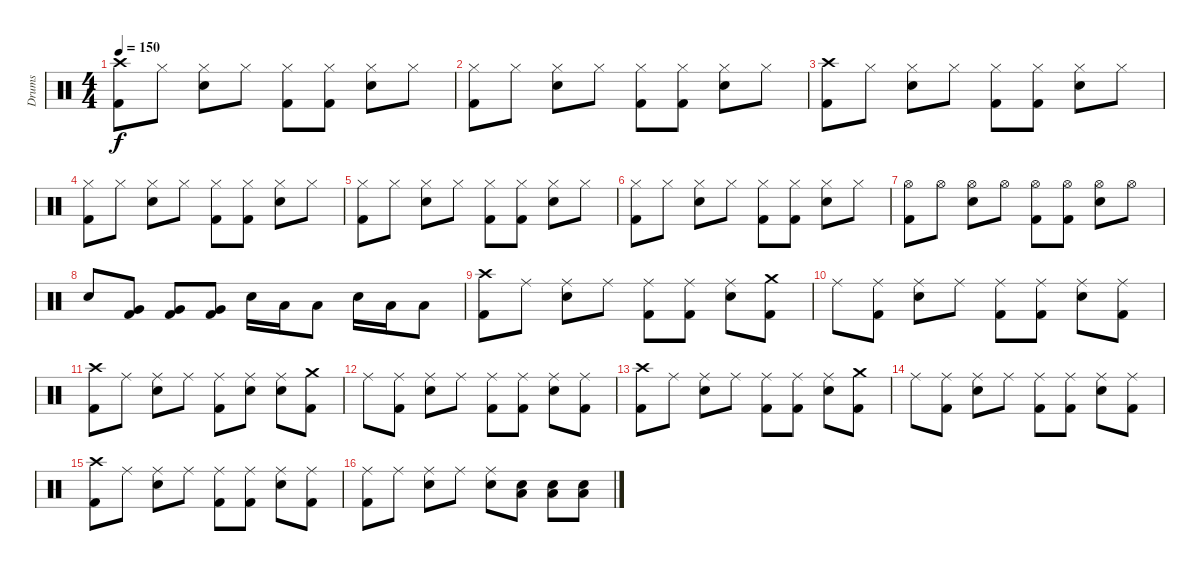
\track ("Drums" "Drums") {instrument percussion}
\staff {score}
\articulation defaults
\ts (4 4)
\tempo 150
\clef neutral
\ks c
("Crash high (hit)" "Kick (hit) 2").8{dy f} "Hi-Hat (closed)".8 ("Hi-Hat (closed)" "Electric Snare (hit)").8 "Hi-Hat (closed)".8 ("Hi-Hat (closed)" "Kick (hit) 2").8 ("Hi-Hat (closed)" "Kick (hit) 2").8 ("Hi-Hat (closed)" "Electric Snare (hit)").8 "Hi-Hat (closed)".8 |
("Hi-Hat (closed)" "Kick (hit) 2").8 "Hi-Hat (closed)".8 ("Hi-Hat (closed)" "Electric Snare (hit)").8 "Hi-Hat (closed)".8 ("Hi-Hat (closed)" "Kick (hit) 2").8 ("Hi-Hat (closed)" "Kick (hit) 2").8 ("Hi-Hat (closed)" "Electric Snare (hit)").8 "Hi-Hat (closed)".8 |
("Crash high (hit)" "Kick (hit) 2").8 "Hi-Hat (closed)".8 ("Hi-Hat (closed)" "Electric Snare (hit)").8 "Hi-Hat (closed)".8 ("Hi-Hat (closed)" "Kick (hit) 2").8 ("Hi-Hat (closed)" "Kick (hit) 2").8 ("Hi-Hat (closed)" "Electric Snare (hit)").8 "Hi-Hat (closed)".8 |
("Hi-Hat (closed)" "Kick (hit) 2").8 "Hi-Hat (closed)".8 ("Hi-Hat (closed)" "Electric Snare (hit)").8 "Hi-Hat (closed)".8 ("Hi-Hat (closed)" "Kick (hit) 2").8 ("Hi-Hat (closed)" "Kick (hit) 2").8 ("Hi-Hat (closed)" "Electric Snare (hit)").8 "Hi-Hat (closed)".8 |
("Hi-Hat (closed)" "Kick (hit) 2").8 "Hi-Hat (closed)".8 ("Hi-Hat (closed)" "Electric Snare (hit)").8 "Hi-Hat (closed)".8 ("Hi-Hat (closed)" "Kick (hit) 2").8 ("Hi-Hat (closed)" "Kick (hit) 2").8 ("Hi-Hat (closed)" "Electric Snare (hit)").8 "Hi-Hat (closed)".8 |
("Hi-Hat (closed)" "Kick (hit) 2").8 "Hi-Hat (closed)".8 ("Hi-Hat (closed)" "Electric Snare (hit)").8 "Hi-Hat (closed)".8 ("Hi-Hat (closed)" "Kick (hit) 2").8 ("Hi-Hat (closed)" "Kick (hit) 2").8 ("Hi-Hat (closed)" "Electric Snare (hit)").8 "Hi-Hat (closed)".8 |
("Hi-Hat (open)" "Kick (hit) 2").8 "Hi-Hat (open)".8 ("Hi-Hat (open)" "Electric Snare (hit)").8 "Hi-Hat (open)".8 ("Hi-Hat (open)" "Kick (hit) 2").8 ("Hi-Hat (open)" "Kick (hit) 2").8 ("Hi-Hat (open)" "Electric Snare (hit)").8 "Hi-Hat (open)".8 |
"Electric Snare (hit)".8 ("Very Low Tom (hit)" "Kick (hit) 2").8 ("Very Low Tom (hit)" "Kick (hit) 2").8 ("Very Low Tom (hit)" "Kick (hit) 2").8 "Electric Snare (hit)".16 "Low Tom (hit)".16 "Low Tom (hit)".8 "Electric Snare (hit)".16 "Low Tom (hit)".16 "Low Tom (hit)".8 |
("Crash high (hit)" "Kick (hit) 2").8 "Ride (middle)".8 ("Ride (middle)" "Electric Snare (hit)").8 "Ride (middle)".8 ("Ride (middle)" "Kick (hit) 2").8 ("Ride (middle)" "Kick (hit) 2").8 ("Ride (middle)" "Electric Snare (hit)").8 ("Crash medium (hit)" "Kick (hit) 2").8 |
"Ride (middle)".8 ("Ride (middle)" "Kick (hit) 2").8 ("Ride (middle)" "Electric Snare (hit)").8 "Ride (middle)".8 ("Ride (middle)" "Kick (hit) 2").8 ("Ride (middle)" "Kick (hit) 2").8 ("Ride (middle)" "Electric Snare (hit)").8 ("Ride (middle)" "Kick (hit) 2").8 |
("Crash high (hit)" "Kick (hit) 2").8 "Ride (middle)".8 ("Ride (middle)" "Electric Snare (hit)").8 "Ride (middle)".8 ("Ride (middle)" "Kick (hit) 2").8 ("Ride (middle)" "Electric Snare (hit)").8 ("Ride (middle)" "Electric Snare (hit)").8 ("Crash medium (hit)" "Kick (hit) 2").8 |
"Ride (middle)".8 ("Ride (middle)" "Kick (hit) 2").8 ("Ride (middle)" "Electric Snare (hit)").8 "Ride (middle)".8 ("Ride (middle)" "Kick (hit) 2").8 ("Ride (middle)" "Kick (hit) 2").8 ("Ride (middle)" "Electric Snare (hit)").8 ("Ride (middle)" "Kick (hit) 2").8 |
("Crash high (hit)" "Kick (hit) 2").8 "Ride (middle)".8 ("Ride (middle)" "Electric Snare (hit)").8 "Ride (middle)".8 ("Ride (middle)" "Kick (hit) 2").8 ("Ride (middle)" "Kick (hit) 2").8 ("Ride (middle)" "Electric Snare (hit)").8 ("Crash medium (hit)" "Kick (hit) 2").8 |
"Ride (middle)".8 ("Ride (middle)" "Kick (hit) 2").8 ("Ride (middle)" "Electric Snare (hit)").8 "Ride (middle)".8 ("Ride (middle)" "Kick (hit) 2").8 ("Ride (middle)" "Kick (hit) 2").8 ("Ride (middle)" "Electric Snare (hit)").8 ("Ride (middle)" "Kick (hit) 2").8 |
("Crash high (hit)" "Kick (hit) 2").8 "Ride (middle)".8 ("Ride (middle)" "Electric Snare (hit)").8 "Ride (middle)".8 ("Ride (middle)" "Kick (hit) 2").8 ("Ride (middle)" "Kick (hit) 2").8 ("Ride (middle)" "Electric Snare (hit)").8 ("Ride (middle)" "Kick (hit) 2").8 |
("Ride (middle)" "Kick (hit) 2").8 "Ride (middle)".8 ("Ride (middle)" "Electric Snare (hit)").8 "Ride (middle)".8 ("Ride (middle)" "Electric Snare (hit)").8 ("Low Floor Tom (hit)" "Electric Snare (hit)").8 ("Low Floor Tom (hit)" "Electric Snare (hit)").8 ("Low Floor Tom (hit)" "Electric Snare (hit)").8
